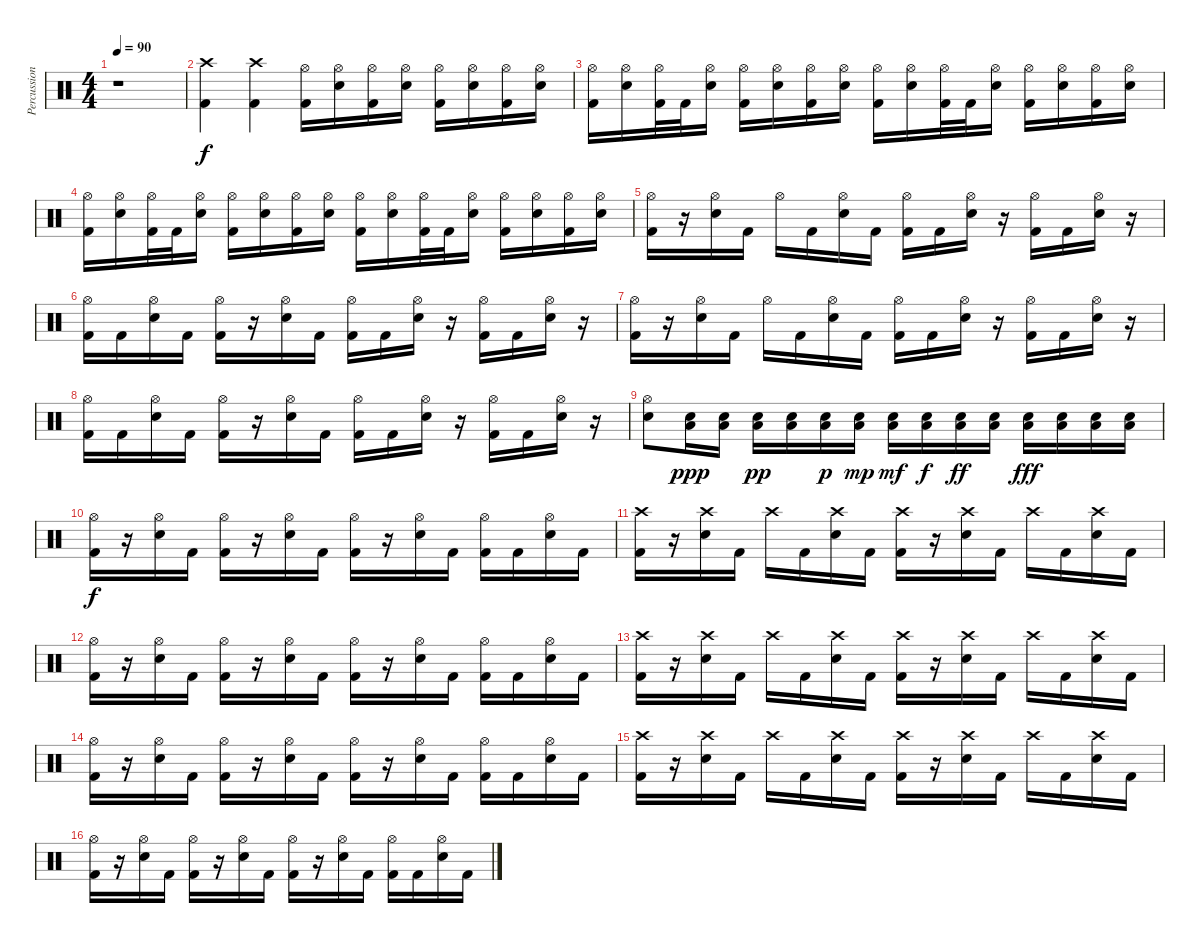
\track ("Percussion" "Percussion") {instrument percussion}
\staff {score}
\articulation defaults
\ts (4 4)
\tempo 90
\clef neutral
\ks c
r.1{dy f} |
("Crash high (hit)" "Kick (hit) 2").4 ("Crash high (hit)" "Kick (hit) 2").4 ("Kick (hit) 2" "Hi-Hat (open)").16 ("Snare (hit) 2" "Hi-Hat (open)").16 ("Kick (hit) 2" "Hi-Hat (open)").16 ("Snare (hit) 2" "Hi-Hat (open)").16 ("Kick (hit) 2" "Hi-Hat (open)").16 ("Snare (hit) 2" "Hi-Hat (open)").16 ("Kick (hit) 2" "Hi-Hat (open)").16 ("Snare (hit) 2" "Hi-Hat (open)").16 |
("Kick (hit) 2" "Hi-Hat (open)").16 ("Snare (hit) 2" "Hi-Hat (open)").16 ("Kick (hit) 2" "Hi-Hat (open)").32 "Kick (hit) 2".32 ("Snare (hit) 2" "Hi-Hat (open)").16 ("Kick (hit) 2" "Hi-Hat (open)").16 ("Snare (hit) 2" "Hi-Hat (open)").16 ("Kick (hit) 2" "Hi-Hat (open)").16 ("Snare (hit) 2" "Hi-Hat (open)").16 ("Kick (hit) 2" "Hi-Hat (open)").16 ("Snare (hit) 2" "Hi-Hat (open)").16 ("Kick (hit) 2" "Hi-Hat (open)").32 "Kick (hit) 2".32 ("Snare (hit) 2" "Hi-Hat (open)").16 ("Kick (hit) 2" "Hi-Hat (open)").16 ("Snare (hit) 2" "Hi-Hat (open)").16 ("Kick (hit) 2" "Hi-Hat (open)").16 ("Snare (hit) 2" "Hi-Hat (open)").16 |
("Kick (hit) 2" "Hi-Hat (open)").16 ("Snare (hit) 2" "Hi-Hat (open)").16 ("Kick (hit) 2" "Hi-Hat (open)").32 "Kick (hit) 2".32 ("Snare (hit) 2" "Hi-Hat (open)").16 ("Kick (hit) 2" "Hi-Hat (open)").16 ("Snare (hit) 2" "Hi-Hat (open)").16 ("Kick (hit) 2" "Hi-Hat (open)").16 ("Snare (hit) 2" "Hi-Hat (open)").16 ("Kick (hit) 2" "Hi-Hat (open)").16 ("Snare (hit) 2" "Hi-Hat (open)").16 ("Kick (hit) 2" "Hi-Hat (open)").32 "Kick (hit) 2".32 ("Snare (hit) 2" "Hi-Hat (open)").16 ("Kick (hit) 2" "Hi-Hat (open)").16 ("Snare (hit) 2" "Hi-Hat (open)").16 ("Kick (hit) 2" "Hi-Hat (open)").16 ("Snare (hit) 2" "Hi-Hat (open)").16 |
("Hi-Hat (open)" "Kick (hit) 2").16 r.16 ("Hi-Hat (open)" "Snare (hit) 2").16 "Kick (hit) 2".16 "Hi-Hat (open)".16 "Kick (hit) 2".16 ("Hi-Hat (open)" "Snare (hit) 2").16 "Kick (hit) 2".16 ("Hi-Hat (open)" "Kick (hit) 2").16 "Kick (hit) 2".16 ("Hi-Hat (open)" "Snare (hit) 2").16 r.16 ("Hi-Hat (open)" "Kick (hit) 2").16 "Kick (hit) 2".16 ("Hi-Hat (open)" "Snare (hit) 2").16 r.16 |
("Hi-Hat (open)" "Kick (hit) 2").16 "Kick (hit) 2".16 ("Hi-Hat (open)" "Snare (hit) 2").16 "Kick (hit) 2".16 ("Hi-Hat (open)" "Kick (hit) 2").16 r.16 ("Hi-Hat (open)" "Snare (hit) 2").16 "Kick (hit) 2".16 ("Hi-Hat (open)" "Kick (hit) 2").16 "Kick (hit) 2".16 ("Hi-Hat (open)" "Snare (hit) 2").16 r.16 ("Hi-Hat (open)" "Kick (hit) 2").16 "Kick (hit) 2".16 ("Hi-Hat (open)" "Snare (hit) 2").16 r.16 |
("Hi-Hat (open)" "Kick (hit) 2").16 r.16 ("Hi-Hat (open)" "Snare (hit) 2").16 "Kick (hit) 2".16 "Hi-Hat (open)".16 "Kick (hit) 2".16 ("Hi-Hat (open)" "Snare (hit) 2").16 "Kick (hit) 2".16 ("Hi-Hat (open)" "Kick (hit) 2").16 "Kick (hit) 2".16 ("Hi-Hat (open)" "Snare (hit) 2").16 r.16 ("Hi-Hat (open)" "Kick (hit) 2").16 "Kick (hit) 2".16 ("Hi-Hat (open)" "Snare (hit) 2").16 r.16 |
("Hi-Hat (open)" "Kick (hit) 2").16 "Kick (hit) 2".16 ("Hi-Hat (open)" "Snare (hit) 2").16 "Kick (hit) 2".16 ("Hi-Hat (open)" "Kick (hit) 2").16 r.16 ("Hi-Hat (open)" "Snare (hit) 2").16 "Kick (hit) 2".16 ("Hi-Hat (open)" "Kick (hit) 2").16 "Kick (hit) 2".16 ("Hi-Hat (open)" "Snare (hit) 2").16 r.16 ("Hi-Hat (open)" "Kick (hit) 2").16 "Kick (hit) 2".16 ("Hi-Hat (open)" "Snare (hit) 2").16 r.16 |
("Snare (hit) 2" "Hi-Hat (open)").8 ("Low Floor Tom (hit)" "Snare (hit) 2").16{dy ppp} ("Low Floor Tom (hit)" "Snare (hit) 2").16 ("Low Floor Tom (hit)" "Snare (hit) 2").16{dy pp} ("Low Floor Tom (hit)" "Snare (hit) 2").16 ("Low Floor Tom (hit)" "Snare (hit) 2").16{dy p} ("Low Floor Tom (hit)" "Snare (hit) 2").16{dy mp} ("Low Floor Tom (hit)" "Snare (hit) 2").16{dy mf} ("Low Floor Tom (hit)" "Snare (hit) 2").16{dy f} ("Low Floor Tom (hit)" "Snare (hit) 2").16{dy ff} ("Low Floor Tom (hit)" "Snare (hit) 2").16 ("Low Floor Tom (hit)" "Snare (hit) 2").16{dy fff} ("Low Floor Tom (hit)" "Snare (hit) 2").16 ("Low Floor Tom (hit)" "Snare (hit) 2").16 ("Low Floor Tom (hit)" "Snare (hit) 2").16 |
("Hi-Hat (open)" "Kick (hit) 2").16{dy f} r.16 ("Hi-Hat (open)" "Snare (hit) 2").16 "Kick (hit) 2".16 ("Hi-Hat (open)" "Kick (hit) 2").16 r.16 ("Hi-Hat (open)" "Snare (hit) 2").16 "Kick (hit) 2".16 ("Hi-Hat (open)" "Kick (hit) 2").16 r.16 ("Hi-Hat (open)" "Snare (hit) 2").16 "Kick (hit) 2".16 ("Hi-Hat (open)" "Kick (hit) 2").16 "Kick (hit) 2".16 ("Hi-Hat (open)" "Snare (hit) 2").16 "Kick (hit) 2".16 |
("Crash high (hit)" "Kick (hit) 2").16 r.16 ("Crash high (hit)" "Snare (hit) 2").16 "Kick (hit) 2".16 "Crash high (hit)".16 "Kick (hit) 2".16 ("Crash high (hit)" "Snare (hit) 2").16 "Kick (hit) 2".16 ("Crash high (hit)" "Kick (hit) 2").16 r.16 ("Crash high (hit)" "Snare (hit) 2").16 "Kick (hit) 2".16 "Crash high (hit)".16 "Kick (hit) 2".16 ("Crash high (hit)" "Snare (hit) 2").16 "Kick (hit) 2".16 |
("Hi-Hat (open)" "Kick (hit) 2").16 r.16 ("Hi-Hat (open)" "Snare (hit) 2").16 "Kick (hit) 2".16 ("Hi-Hat (open)" "Kick (hit) 2").16 r.16 ("Hi-Hat (open)" "Snare (hit) 2").16 "Kick (hit) 2".16 ("Hi-Hat (open)" "Kick (hit) 2").16 r.16 ("Hi-Hat (open)" "Snare (hit) 2").16 "Kick (hit) 2".16 ("Hi-Hat (open)" "Kick (hit) 2").16 "Kick (hit) 2".16 ("Hi-Hat (open)" "Snare (hit) 2").16 "Kick (hit) 2".16 |
("Crash high (hit)" "Kick (hit) 2").16 r.16 ("Crash high (hit)" "Snare (hit) 2").16 "Kick (hit) 2".16 "Crash high (hit)".16 "Kick (hit) 2".16 ("Crash high (hit)" "Snare (hit) 2").16 "Kick (hit) 2".16 ("Crash high (hit)" "Kick (hit) 2").16 r.16 ("Crash high (hit)" "Snare (hit) 2").16 "Kick (hit) 2".16 "Crash high (hit)".16 "Kick (hit) 2".16 ("Crash high (hit)" "Snare (hit) 2").16 "Kick (hit) 2".16 |
("Hi-Hat (open)" "Kick (hit) 2").16 r.16 ("Hi-Hat (open)" "Snare (hit) 2").16 "Kick (hit) 2".16 ("Hi-Hat (open)" "Kick (hit) 2").16 r.16 ("Hi-Hat (open)" "Snare (hit) 2").16 "Kick (hit) 2".16 ("Hi-Hat (open)" "Kick (hit) 2").16 r.16 ("Hi-Hat (open)" "Snare (hit) 2").16 "Kick (hit) 2".16 ("Hi-Hat (open)" "Kick (hit) 2").16 "Kick (hit) 2".16 ("Hi-Hat (open)" "Snare (hit) 2").16 "Kick (hit) 2".16 |
("Crash high (hit)" "Kick (hit) 2").16 r.16 ("Crash high (hit)" "Snare (hit) 2").16 "Kick (hit) 2".16 "Crash high (hit)".16 "Kick (hit) 2".16 ("Crash high (hit)" "Snare (hit) 2").16 "Kick (hit) 2".16 ("Crash high (hit)" "Kick (hit) 2").16 r.16 ("Crash high (hit)" "Snare (hit) 2").16 "Kick (hit) 2".16 "Crash high (hit)".16 "Kick (hit) 2".16 ("Crash high (hit)" "Snare (hit) 2").16 "Kick (hit) 2".16 |
("Hi-Hat (open)" "Kick (hit) 2").16 r.16 ("Hi-Hat (open)" "Snare (hit) 2").16 "Kick (hit) 2".16 ("Hi-Hat (open)" "Kick (hit) 2").16 r.16 ("Hi-Hat (open)" "Snare (hit) 2").16 "Kick (hit) 2".16 ("Hi-Hat (open)" "Kick (hit) 2").16 r.16 ("Hi-Hat (open)" "Snare (hit) 2").16 "Kick (hit) 2".16 ("Hi-Hat (open)" "Kick (hit) 2").16 "Kick (hit) 2".16 ("Hi-Hat (open)" "Snare (hit) 2").16 "Kick (hit) 2".16
